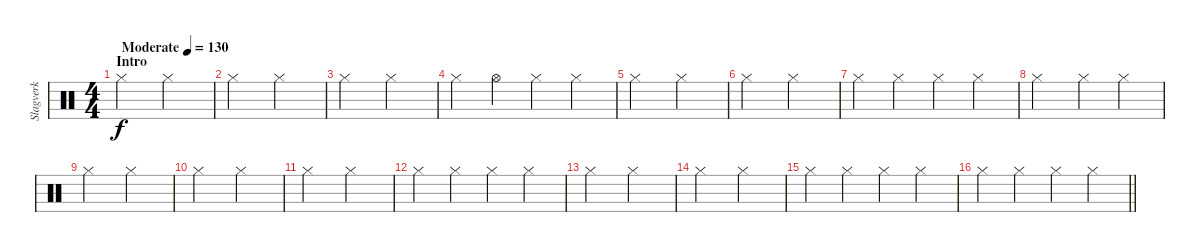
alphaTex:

\track ("Slagverk" "Slagverk") {instrument percussion}
\staff {score}
\articulation defaults
\ts (4 4)
\section ("" "Intro")
\tempo (130 "Moderate")
\clef neutral
\ks c "Hi-Hat (closed)".2{dy f} "Hi-Hat (closed)".2
|
"Hi-Hat (closed)".2 "Hi-Hat (closed)".2 |
"Hi-Hat (closed)".2 "Hi-Hat (closed)".2 |
"Hi-Hat (closed)".4 "Hi-Hat (open)".4 "Hi-Hat (closed)".4 "Hi-Hat (closed)".4 |
"Hi-Hat (closed)".2 "Hi-Hat (closed)".2 |
"Hi-Hat (closed)".2 "Hi-Hat (closed)".2 |
"Hi-Hat (closed)".4 "Hi-Hat (closed)".4 "Hi-Hat (closed)".4 "Hi-Hat (closed)".4 |
"Hi-Hat (closed)".2 "Hi-Hat (closed)".4 "Hi-Hat (closed)".4 |
"Hi-Hat (closed)".2 "Hi-Hat (closed)".2 |
"Hi-Hat (closed)".2 "Hi-Hat (closed)".2 |
"Hi-Hat (closed)".2 "Hi-Hat (closed)".2 |
"Hi-Hat (closed)".4 "Hi-Hat (closed)".4 "Hi-Hat (closed)".4 "Hi-Hat (closed)".4 |
"Hi-Hat (closed)".2 "Hi-Hat (closed)".2 |
"Hi-Hat (closed)".2 "Hi-Hat (closed)".2 |
"Hi-Hat (closed)".4 "Hi-Hat (closed)".4 "Hi-Hat (closed)".4 "Hi-Hat (closed)".4 |
\barLineRight lightlight "Hi-Hat (closed)".4 "Hi-Hat (closed)".4 "Hi-Hat (closed)".4 "Hi-Hat (closed)".4
